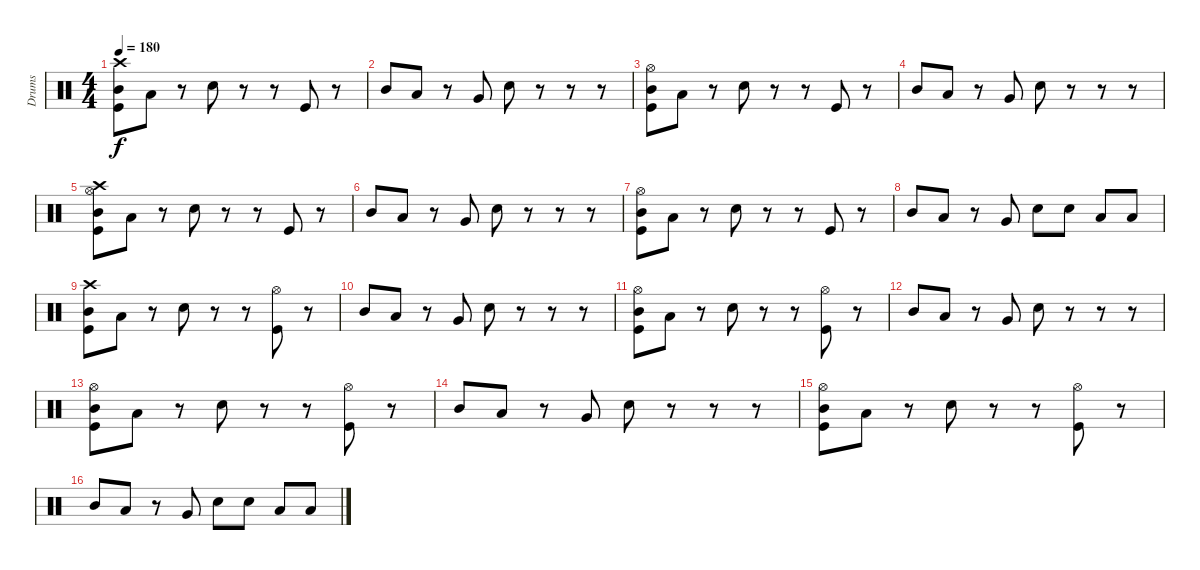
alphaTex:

\track ("Drums" "Drums") {instrument percussion}
\staff {score}
\articulation defaults
\ts (4 4)
\tempo 180
\clef neutral
\ks c
("Crash high (hit)" "Mid Tom (hit)" "Kick (hit)").8{dy f} "Low Tom (hit)".8 r.8 "Snare (hit) 2".8 r.8 r.8 "Kick (hit)".8 r.8 |
"Mid Tom (hit)".8 "Low Tom (hit)".8 r.8 "Very Low Tom (hit)".8 "Snare (hit) 2".8 r.8 r.8 r.8 |
("Hi-Hat (open)" "Mid Tom (hit)" "Kick (hit)").8 "Low Tom (hit)".8 r.8 "Snare (hit) 2".8 r.8 r.8 "Kick (hit)".8 r.8 |
"Mid Tom (hit)".8 "Low Tom (hit)".8 r.8 "Very Low Tom (hit)".8 "Snare (hit) 2".8 r.8 r.8 r.8 |
("Crash high (hit)" "Mid Tom (hit)" "Kick (hit)" "Hi-Hat (open)").8 "Low Tom (hit)".8 r.8 "Snare (hit) 2".8 r.8 r.8 "Kick (hit)".8 r.8 |
"Mid Tom (hit)".8 "Low Tom (hit)".8 r.8 "Very Low Tom (hit)".8 "Snare (hit) 2".8 r.8 r.8 r.8 |
("Hi-Hat (open)" "Mid Tom (hit)" "Kick (hit)").8 "Low Tom (hit)".8 r.8 "Snare (hit) 2".8 r.8 r.8 "Kick (hit)".8 r.8 |
"Mid Tom (hit)".8 "Low Tom (hit)".8 r.8 "Very Low Tom (hit)".8 "Snare (hit) 2".8 "Snare (hit) 2".8 "Low Tom (hit)".8 "Low Tom (hit)".8 |
("Crash high (hit)" "Mid Tom (hit)" "Kick (hit)").8 "Low Tom (hit)".8 r.8 "Snare (hit) 2".8 r.8 r.8 ("Hi-Hat (open)" "Kick (hit)").8 r.8 |
"Mid Tom (hit)".8 "Low Tom (hit)".8 r.8 "Very Low Tom (hit)".8 "Snare (hit) 2".8 r.8 r.8 r.8 |
("Hi-Hat (open)" "Mid Tom (hit)" "Kick (hit)").8 "Low Tom (hit)".8 r.8 "Snare (hit) 2".8 r.8 r.8 ("Hi-Hat (open)" "Kick (hit)").8 r.8 |
"Mid Tom (hit)".8 "Low Tom (hit)".8 r.8 "Very Low Tom (hit)".8 "Snare (hit) 2".8 r.8 r.8 r.8 |
("Hi-Hat (open)" "Mid Tom (hit)" "Kick (hit)").8 "Low Tom (hit)".8 r.8 "Snare (hit) 2".8 r.8 r.8 ("Hi-Hat (open)" "Kick (hit)").8 r.8 |
"Mid Tom (hit)".8 "Low Tom (hit)".8 r.8 "Very Low Tom (hit)".8 "Snare (hit) 2".8 r.8 r.8 r.8 |
("Hi-Hat (open)" "Mid Tom (hit)" "Kick (hit)").8 "Low Tom (hit)".8 r.8 "Snare (hit) 2".8 r.8 r.8 ("Hi-Hat (open)" "Kick (hit)").8 r.8 |
"Mid Tom (hit)".8 "Low Tom (hit)".8 r.8 "Very Low Tom (hit)".8 "Snare (hit) 2".8 "Snare (hit) 2".8 "Low Tom (hit)".8 "Low Tom (hit)".8
